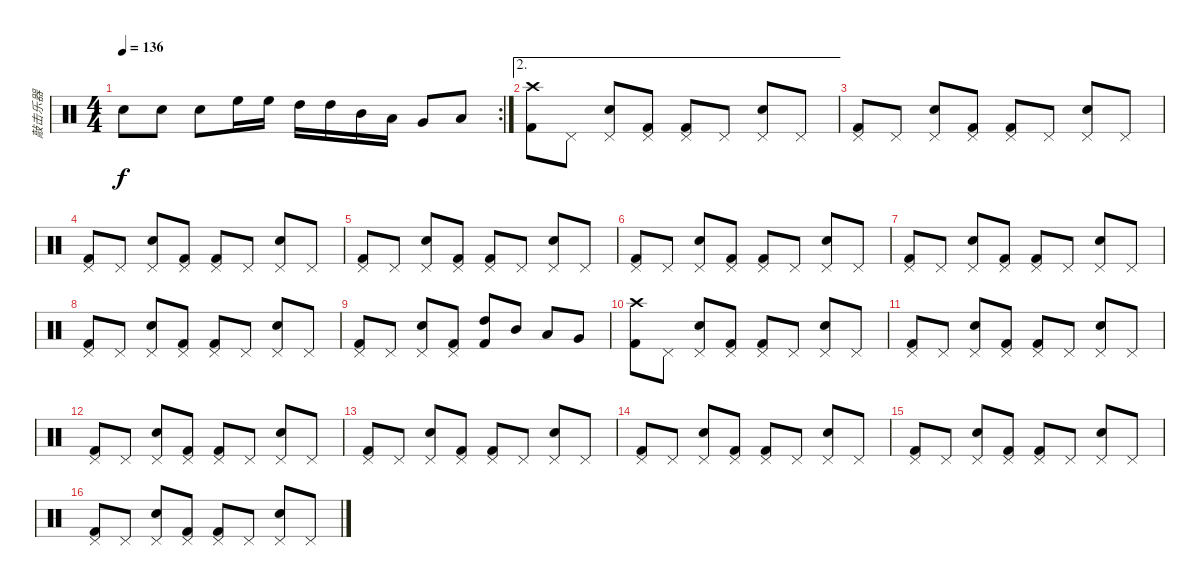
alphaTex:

\track ("敲击乐器" "敲击乐器") {instrument percussion}
\staff {score}
\articulation defaults
\rc 2
\ts (4 4)
\tempo 136
\clef neutral
\ks c "Metronome (bell)".8{dy f} "Snare (hit) 2".8 "Snare (hit) 2".8 "High Floor Tom (hit)".16 "High Floor Tom (hit)".16 "High Tom (hit)".16 "High Tom (hit)".16 "Mid Tom (hit)".16 "Low Tom (hit)".16 "Very Low Tom (hit)".8 "Low Floor Tom (hit)".8
|
\ae 2
("Crash high (hit)" "Kick (hit) 2").8 "Pedal Hi-Hat (hit)".8 ("Pedal Hi-Hat (hit)" "Snare (hit) 2").8 ("Pedal Hi-Hat (hit)" "Kick (hit) 2").8 ("Pedal Hi-Hat (hit)" "Kick (hit) 2").8 "Pedal Hi-Hat (hit)".8 ("Pedal Hi-Hat (hit)" "Snare (hit) 2").8 "Pedal Hi-Hat (hit)".8 |
("Pedal Hi-Hat (hit)" "Kick (hit) 2").8 "Pedal Hi-Hat (hit)".8 ("Pedal Hi-Hat (hit)" "Snare (hit) 2").8 ("Pedal Hi-Hat (hit)" "Kick (hit) 2").8 ("Pedal Hi-Hat (hit)" "Kick (hit) 2").8 "Pedal Hi-Hat (hit)".8 ("Pedal Hi-Hat (hit)" "Snare (hit) 2").8 "Pedal Hi-Hat (hit)".8 |
("Pedal Hi-Hat (hit)" "Kick (hit) 2").8 "Pedal Hi-Hat (hit)".8 ("Pedal Hi-Hat (hit)" "Snare (hit) 2").8 ("Pedal Hi-Hat (hit)" "Kick (hit) 2").8 ("Pedal Hi-Hat (hit)" "Kick (hit) 2").8 "Pedal Hi-Hat (hit)".8 ("Pedal Hi-Hat (hit)" "Snare (hit) 2").8 "Pedal Hi-Hat (hit)".8 |
("Pedal Hi-Hat (hit)" "Kick (hit) 2").8 "Pedal Hi-Hat (hit)".8 ("Pedal Hi-Hat (hit)" "Snare (hit) 2").8 ("Pedal Hi-Hat (hit)" "Kick (hit) 2").8 ("Pedal Hi-Hat (hit)" "Kick (hit) 2").8 "Pedal Hi-Hat (hit)".8 ("Pedal Hi-Hat (hit)" "Snare (hit) 2").8 "Pedal Hi-Hat (hit)".8 |
("Pedal Hi-Hat (hit)" "Kick (hit) 2").8 "Pedal Hi-Hat (hit)".8 ("Pedal Hi-Hat (hit)" "Snare (hit) 2").8 ("Pedal Hi-Hat (hit)" "Kick (hit) 2").8 ("Pedal Hi-Hat (hit)" "Kick (hit) 2").8 "Pedal Hi-Hat (hit)".8 ("Pedal Hi-Hat (hit)" "Snare (hit) 2").8 "Pedal Hi-Hat (hit)".8 |
("Pedal Hi-Hat (hit)" "Kick (hit) 2").8 "Pedal Hi-Hat (hit)".8 ("Pedal Hi-Hat (hit)" "Snare (hit) 2").8 ("Pedal Hi-Hat (hit)" "Kick (hit) 2").8 ("Pedal Hi-Hat (hit)" "Kick (hit) 2").8 "Pedal Hi-Hat (hit)".8 ("Pedal Hi-Hat (hit)" "Snare (hit) 2").8 "Pedal Hi-Hat (hit)".8 |
("Pedal Hi-Hat (hit)" "Kick (hit) 2").8 "Pedal Hi-Hat (hit)".8 ("Pedal Hi-Hat (hit)" "Snare (hit) 2").8 ("Pedal Hi-Hat (hit)" "Kick (hit) 2").8 ("Pedal Hi-Hat (hit)" "Kick (hit) 2").8 "Pedal Hi-Hat (hit)".8 ("Pedal Hi-Hat (hit)" "Snare (hit) 2").8 "Pedal Hi-Hat (hit)".8 |
("Pedal Hi-Hat (hit)" "Kick (hit) 2").8 "Pedal Hi-Hat (hit)".8 ("Pedal Hi-Hat (hit)" "Snare (hit) 2").8 ("Pedal Hi-Hat (hit)" "Kick (hit) 2").8 ("High Tom (hit)" "Kick (hit) 2").8 "Mid Tom (hit)".8 "Low Tom (hit)".8 "Very Low Tom (hit)".8 |
("Crash high (hit)" "Kick (hit) 2").8 "Pedal Hi-Hat (hit)".8 ("Pedal Hi-Hat (hit)" "Snare (hit) 2").8 ("Pedal Hi-Hat (hit)" "Kick (hit) 2").8 ("Pedal Hi-Hat (hit)" "Kick (hit) 2").8 "Pedal Hi-Hat (hit)".8 ("Pedal Hi-Hat (hit)" "Snare (hit) 2").8 "Pedal Hi-Hat (hit)".8 |
("Pedal Hi-Hat (hit)" "Kick (hit) 2").8 "Pedal Hi-Hat (hit)".8 ("Pedal Hi-Hat (hit)" "Snare (hit) 2").8 ("Pedal Hi-Hat (hit)" "Kick (hit) 2").8 ("Pedal Hi-Hat (hit)" "Kick (hit) 2").8 "Pedal Hi-Hat (hit)".8 ("Pedal Hi-Hat (hit)" "Snare (hit) 2").8 "Pedal Hi-Hat (hit)".8 |
("Pedal Hi-Hat (hit)" "Kick (hit) 2").8 "Pedal Hi-Hat (hit)".8 ("Pedal Hi-Hat (hit)" "Snare (hit) 2").8 ("Pedal Hi-Hat (hit)" "Kick (hit) 2").8 ("Pedal Hi-Hat (hit)" "Kick (hit) 2").8 "Pedal Hi-Hat (hit)".8 ("Pedal Hi-Hat (hit)" "Snare (hit) 2").8 "Pedal Hi-Hat (hit)".8 |
("Pedal Hi-Hat (hit)" "Kick (hit) 2").8 "Pedal Hi-Hat (hit)".8 ("Pedal Hi-Hat (hit)" "Snare (hit) 2").8 ("Pedal Hi-Hat (hit)" "Kick (hit) 2").8 ("Pedal Hi-Hat (hit)" "Kick (hit) 2").8 "Pedal Hi-Hat (hit)".8 ("Pedal Hi-Hat (hit)" "Snare (hit) 2").8 "Pedal Hi-Hat (hit)".8 |
("Pedal Hi-Hat (hit)" "Kick (hit) 2").8 "Pedal Hi-Hat (hit)".8 ("Pedal Hi-Hat (hit)" "Snare (hit) 2").8 ("Pedal Hi-Hat (hit)" "Kick (hit) 2").8 ("Pedal Hi-Hat (hit)" "Kick (hit) 2").8 "Pedal Hi-Hat (hit)".8 ("Pedal Hi-Hat (hit)" "Snare (hit) 2").8 "Pedal Hi-Hat (hit)".8 |
("Pedal Hi-Hat (hit)" "Kick (hit) 2").8 "Pedal Hi-Hat (hit)".8 ("Pedal Hi-Hat (hit)" "Snare (hit) 2").8 ("Pedal Hi-Hat (hit)" "Kick (hit) 2").8 ("Pedal Hi-Hat (hit)" "Kick (hit) 2").8 "Pedal Hi-Hat (hit)".8 ("Pedal Hi-Hat (hit)" "Snare (hit) 2").8 "Pedal Hi-Hat (hit)".8 |
("Pedal Hi-Hat (hit)" "Kick (hit) 2").8 "Pedal Hi-Hat (hit)".8 ("Pedal Hi-Hat (hit)" "Snare (hit) 2").8 ("Pedal Hi-Hat (hit)" "Kick (hit) 2").8 ("Pedal Hi-Hat (hit)" "Kick (hit) 2").8 "Pedal Hi-Hat (hit)".8 ("Pedal Hi-Hat (hit)" "Snare (hit) 2").8 "Pedal Hi-Hat (hit)".8
